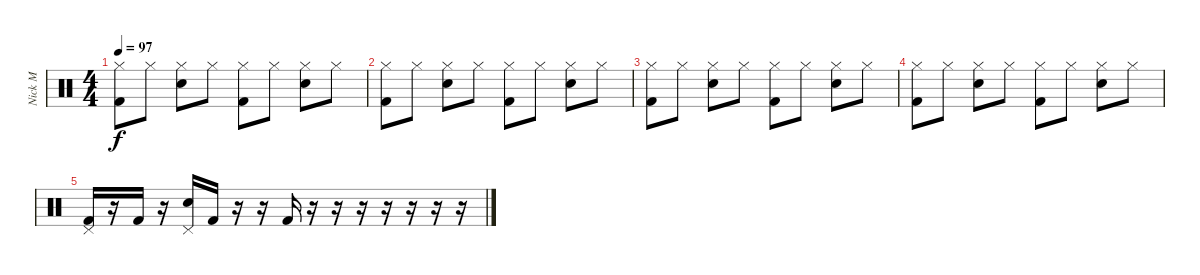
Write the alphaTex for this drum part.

\track ("Nick M" "Nick M") {instrument percussion}
\staff {score}
\articulation defaults
\ts (4 4)
\tempo 97
\clef neutral
\ks c
("Hi-Hat (closed)" "Kick (hit) 2").8{dy f} "Hi-Hat (closed)".8 ("Hi-Hat (closed)" "Snare (hit) 2").8 "Hi-Hat (closed)".8 ("Hi-Hat (closed)" "Kick (hit) 2").8 "Hi-Hat (closed)".8 ("Hi-Hat (closed)" "Snare (hit) 2").8 "Hi-Hat (closed)".8 |
("Hi-Hat (closed)" "Kick (hit) 2").8 "Hi-Hat (closed)".8 ("Hi-Hat (closed)" "Snare (hit) 2").8 "Hi-Hat (closed)".8 ("Hi-Hat (closed)" "Kick (hit) 2").8 "Hi-Hat (closed)".8 ("Hi-Hat (closed)" "Snare (hit) 2").8 "Hi-Hat (closed)".8 |
("Hi-Hat (closed)" "Kick (hit) 2").8 "Hi-Hat (closed)".8 ("Hi-Hat (closed)" "Snare (hit) 2").8 "Hi-Hat (closed)".8 ("Hi-Hat (closed)" "Kick (hit) 2").8 "Hi-Hat (closed)".8 ("Hi-Hat (closed)" "Snare (hit) 2").8 "Hi-Hat (closed)".8 |
("Hi-Hat (closed)" "Kick (hit) 2").8 "Hi-Hat (closed)".8 ("Hi-Hat (closed)" "Snare (hit) 2").8 "Hi-Hat (closed)".8 ("Hi-Hat (closed)" "Kick (hit) 2").8 "Hi-Hat (closed)".8 ("Hi-Hat (closed)" "Snare (hit) 2").8 "Hi-Hat (closed)".8 |
("Pedal Hi-Hat (hit)" "Kick (hit) 2").16 r.16 "Kick (hit) 2".16 r.16 ("Pedal Hi-Hat (hit)" "Snare (hit) 2").16 "Kick (hit) 2".16 r.16 r.16 "Kick (hit) 2".16 r.16 r.16 r.16 r.16 r.16 r.16 r.16
